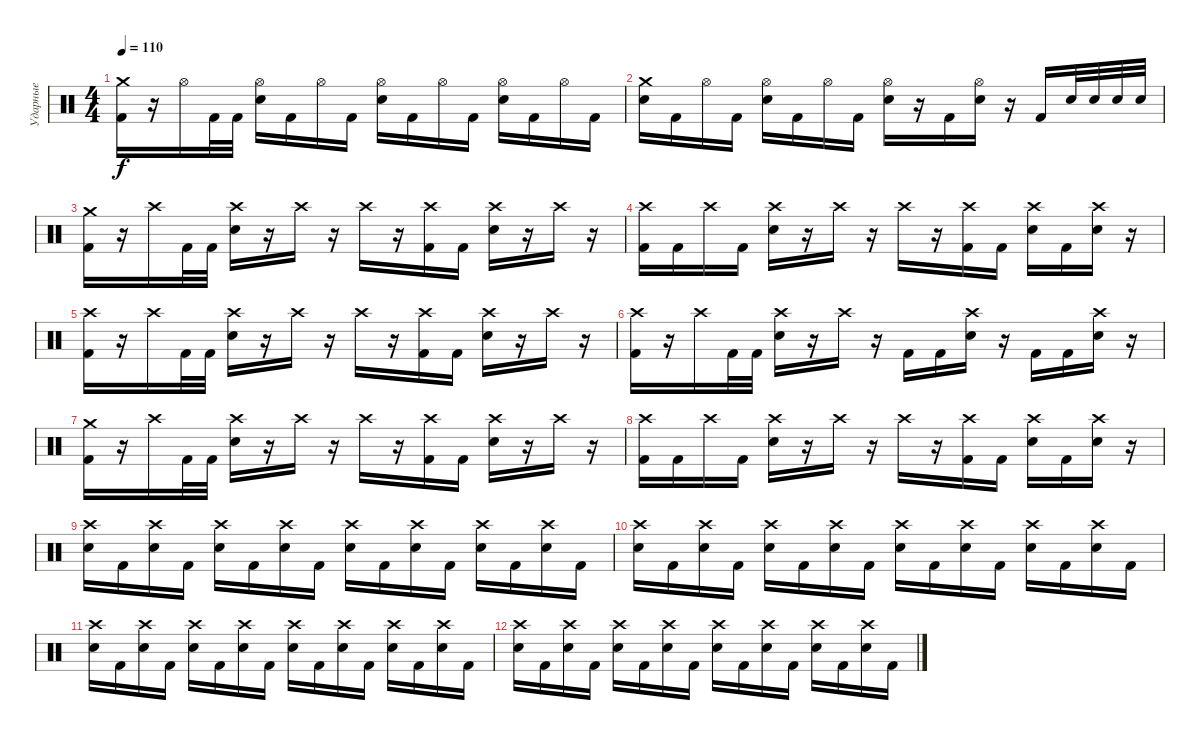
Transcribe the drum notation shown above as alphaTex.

\track ("Ударные" "Ударные") {instrument percussion}
\staff {score}
\articulation defaults
\ts (4 4)
\tempo 110
\clef neutral
\ks c
("Crash medium (hit)" "Kick (hit) 2").16{dy f} r.16 "Hi-Hat (open)".16 "Kick (hit) 2".32 "Kick (hit) 2".32 ("Hi-Hat (open)" "Electric Snare (hit)").16 "Kick (hit) 2".16 "Hi-Hat (open)".16 "Kick (hit) 2".16 ("Hi-Hat (open)" "Electric Snare (hit)").16 "Kick (hit) 2".16 "Hi-Hat (open)".16 "Kick (hit) 2".16 ("Hi-Hat (open)" "Electric Snare (hit)").16 "Kick (hit) 2".16 "Hi-Hat (open)".16 "Kick (hit) 2".16 |
("Crash medium (hit)" "Electric Snare (hit)").16 "Kick (hit) 2".16 "Hi-Hat (open)".16 "Kick (hit) 2".16 ("Hi-Hat (open)" "Electric Snare (hit)").16 "Kick (hit) 2".16 "Hi-Hat (open)".16 "Kick (hit) 2".16 ("Hi-Hat (open)" "Electric Snare (hit)").16 r.16 "Kick (hit) 2".16 ("Hi-Hat (open)" "Electric Snare (hit)").16 r.16 "Kick (hit) 2".16 "Electric Snare (hit)".32 "Electric Snare (hit)".32 "Electric Snare (hit)".32 "Electric Snare (hit)".32 |
("Crash medium (hit)" "Kick (hit) 2").16 r.16 "Crash high (hit)".16 "Kick (hit) 2".32 "Kick (hit) 2".32 ("Crash high (hit)" "Electric Snare (hit)").16 r.16 "Crash high (hit)".16 r.16 "Crash high (hit)".16 r.16 ("Crash high (hit)" "Kick (hit) 2").16 "Kick (hit) 2".16 ("Crash high (hit)" "Electric Snare (hit)").16 r.16 "Crash high (hit)".16 r.16 |
("Crash high (hit)" "Kick (hit) 2").16 "Kick (hit) 2".16 "Crash high (hit)".16 "Kick (hit) 2".16 ("Crash high (hit)" "Electric Snare (hit)").16 r.16 "Crash high (hit)".16 r.16 "Crash high (hit)".16 r.16 ("Crash high (hit)" "Kick (hit) 2").16 "Kick (hit) 2".16 ("Crash high (hit)" "Electric Snare (hit)").16 "Kick (hit) 2".16 ("Crash high (hit)" "Electric Snare (hit)").16 r.16 |
("Crash high (hit)" "Kick (hit) 2").16 r.16 "Crash high (hit)".16 "Kick (hit) 2".32 "Kick (hit) 2".32 ("Crash high (hit)" "Electric Snare (hit)").16 r.16 "Crash high (hit)".16 r.16 "Crash high (hit)".16 r.16 ("Crash high (hit)" "Kick (hit) 2").16 "Kick (hit) 2".16 ("Crash high (hit)" "Electric Snare (hit)").16 r.16 "Crash high (hit)".16 r.16 |
("Crash high (hit)" "Kick (hit) 2").16 r.16 "Crash high (hit)".16 "Kick (hit) 2".32 "Kick (hit) 2".32 ("Crash high (hit)" "Electric Snare (hit)").16 r.16 "Crash high (hit)".16 r.16 "Kick (hit) 2".16 "Kick (hit) 2".16 ("Crash high (hit)" "Electric Snare (hit)").16 r.16 "Kick (hit) 2".16 "Kick (hit) 2".16 ("Crash high (hit)" "Electric Snare (hit)").16 r.16 |
("Crash medium (hit)" "Kick (hit) 2").16 r.16 "Crash high (hit)".16 "Kick (hit) 2".32 "Kick (hit) 2".32 ("Crash high (hit)" "Electric Snare (hit)").16 r.16 "Crash high (hit)".16 r.16 "Crash high (hit)".16 r.16 ("Crash high (hit)" "Kick (hit) 2").16 "Kick (hit) 2".16 ("Crash high (hit)" "Electric Snare (hit)").16 r.16 "Crash high (hit)".16 r.16 |
("Crash high (hit)" "Kick (hit) 2").16 "Kick (hit) 2".16 "Crash high (hit)".16 "Kick (hit) 2".16 ("Crash high (hit)" "Electric Snare (hit)").16 r.16 "Crash high (hit)".16 r.16 "Crash high (hit)".16 r.16 ("Crash high (hit)" "Kick (hit) 2").16 "Kick (hit) 2".16 ("Crash high (hit)" "Electric Snare (hit)").16 "Kick (hit) 2".16 ("Crash high (hit)" "Electric Snare (hit)").16 r.16 |
("Crash high (hit)" "Electric Snare (hit)").16 "Kick (hit) 2".16 ("Crash high (hit)" "Electric Snare (hit)").16 "Kick (hit) 2".16 ("Crash high (hit)" "Electric Snare (hit)").16 "Kick (hit) 2".16 ("Crash high (hit)" "Electric Snare (hit)").16 "Kick (hit) 2".16 ("Crash high (hit)" "Electric Snare (hit)").16 "Kick (hit) 2".16 ("Crash high (hit)" "Electric Snare (hit)").16 "Kick (hit) 2".16 ("Crash high (hit)" "Electric Snare (hit)").16 "Kick (hit) 2".16 ("Crash high (hit)" "Electric Snare (hit)").16 "Kick (hit) 2".16 |
("Crash high (hit)" "Electric Snare (hit)").16 "Kick (hit) 2".16 ("Crash high (hit)" "Electric Snare (hit)").16 "Kick (hit) 2".16 ("Crash high (hit)" "Electric Snare (hit)").16 "Kick (hit) 2".16 ("Crash high (hit)" "Electric Snare (hit)").16 "Kick (hit) 2".16 ("Crash high (hit)" "Electric Snare (hit)").16 "Kick (hit) 2".16 ("Crash high (hit)" "Electric Snare (hit)").16 "Kick (hit) 2".16 ("Crash high (hit)" "Electric Snare (hit)").16 "Kick (hit) 2".16 ("Crash high (hit)" "Electric Snare (hit)").16 "Kick (hit) 2".16 |
("Crash high (hit)" "Electric Snare (hit)").16 "Kick (hit) 2".16 ("Crash high (hit)" "Electric Snare (hit)").16 "Kick (hit) 2".16 ("Crash high (hit)" "Electric Snare (hit)").16 "Kick (hit) 2".16 ("Crash high (hit)" "Electric Snare (hit)").16 "Kick (hit) 2".16 ("Crash high (hit)" "Electric Snare (hit)").16 "Kick (hit) 2".16 ("Crash high (hit)" "Electric Snare (hit)").16 "Kick (hit) 2".16 ("Crash high (hit)" "Electric Snare (hit)").16 "Kick (hit) 2".16 ("Crash high (hit)" "Electric Snare (hit)").16 "Kick (hit) 2".16 |
("Crash high (hit)" "Electric Snare (hit)").16 "Kick (hit) 2".16 ("Crash high (hit)" "Electric Snare (hit)").16 "Kick (hit) 2".16 ("Crash high (hit)" "Electric Snare (hit)").16 "Kick (hit) 2".16 ("Crash high (hit)" "Electric Snare (hit)").16 "Kick (hit) 2".16 ("Crash high (hit)" "Electric Snare (hit)").16 "Kick (hit) 2".16 ("Crash high (hit)" "Electric Snare (hit)").16 "Kick (hit) 2".16 ("Crash high (hit)" "Electric Snare (hit)").16 "Kick (hit) 2".16 ("Crash high (hit)" "Electric Snare (hit)").16 "Kick (hit) 2".16
